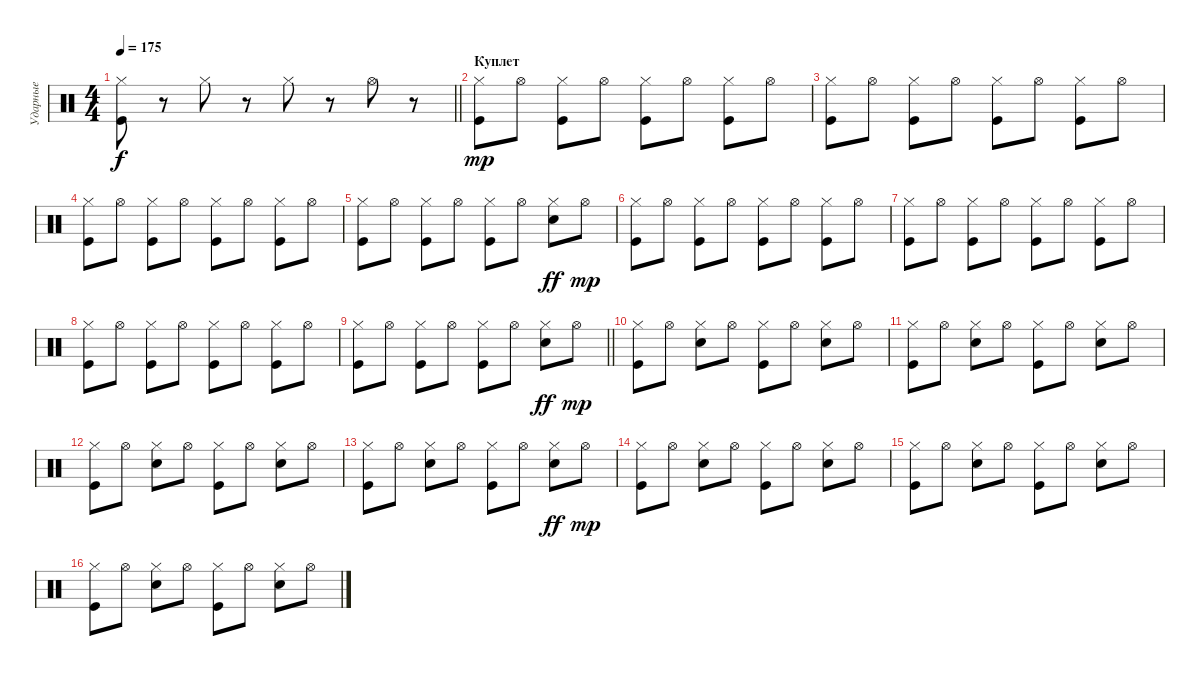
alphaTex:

\track ("Ударные" "Ударные") {instrument percussion}
\staff {score}
\articulation defaults
\ts (4 4)
\tempo 175
\clef neutral
\barLineRight lightlight
\ks c
("Hi-Hat (closed)" "Kick (hit)").8{dy f} r.8 "Hi-Hat (closed)".8 r.8 "Hi-Hat (closed)".8 r.8 "Hi-Hat (open)".8 r.8 |
\section ("" "Куплет")
("Hi-Hat (closed)" "Kick (hit)").8{dy mp} "Hi-Hat (open)".8 ("Hi-Hat (closed)" "Kick (hit)").8 "Hi-Hat (open)".8 ("Hi-Hat (closed)" "Kick (hit)").8 "Hi-Hat (open)".8 ("Hi-Hat (closed)" "Kick (hit)").8 "Hi-Hat (open)".8 |
("Hi-Hat (closed)" "Kick (hit)").8 "Hi-Hat (open)".8 ("Hi-Hat (closed)" "Kick (hit)").8 "Hi-Hat (open)".8 ("Hi-Hat (closed)" "Kick (hit)").8 "Hi-Hat (open)".8 ("Hi-Hat (closed)" "Kick (hit)").8 "Hi-Hat (open)".8 |
("Hi-Hat (closed)" "Kick (hit)").8 "Hi-Hat (open)".8 ("Hi-Hat (closed)" "Kick (hit)").8 "Hi-Hat (open)".8 ("Hi-Hat (closed)" "Kick (hit)").8 "Hi-Hat (open)".8 ("Hi-Hat (closed)" "Kick (hit)").8 "Hi-Hat (open)".8 |
("Hi-Hat (closed)" "Kick (hit)").8 "Hi-Hat (open)".8 ("Hi-Hat (closed)" "Kick (hit)").8 "Hi-Hat (open)".8 ("Hi-Hat (closed)" "Kick (hit)").8 "Hi-Hat (open)".8 ("Hi-Hat (closed)" "Electric Snare (hit)").8{dy ff} "Hi-Hat (open)".8{dy mp} |
("Hi-Hat (closed)" "Kick (hit)").8 "Hi-Hat (open)".8 ("Hi-Hat (closed)" "Kick (hit)").8 "Hi-Hat (open)".8 ("Hi-Hat (closed)" "Kick (hit)").8 "Hi-Hat (open)".8 ("Hi-Hat (closed)" "Kick (hit)").8 "Hi-Hat (open)".8 |
("Hi-Hat (closed)" "Kick (hit)").8 "Hi-Hat (open)".8 ("Hi-Hat (closed)" "Kick (hit)").8 "Hi-Hat (open)".8 ("Hi-Hat (closed)" "Kick (hit)").8 "Hi-Hat (open)".8 ("Hi-Hat (closed)" "Kick (hit)").8 "Hi-Hat (open)".8 |
("Hi-Hat (closed)" "Kick (hit)").8 "Hi-Hat (open)".8 ("Hi-Hat (closed)" "Kick (hit)").8 "Hi-Hat (open)".8 ("Hi-Hat (closed)" "Kick (hit)").8 "Hi-Hat (open)".8 ("Hi-Hat (closed)" "Kick (hit)").8 "Hi-Hat (open)".8 |
\barLineRight lightlight
("Hi-Hat (closed)" "Kick (hit)").8 "Hi-Hat (open)".8 ("Hi-Hat (closed)" "Kick (hit)").8 "Hi-Hat (open)".8 ("Hi-Hat (closed)" "Kick (hit)").8 "Hi-Hat (open)".8 ("Hi-Hat (closed)" "Electric Snare (hit)").8{dy ff} "Hi-Hat (open)".8{dy mp} |
\section ("" " ")
("Hi-Hat (closed)" "Kick (hit)").8 "Hi-Hat (open)".8 ("Hi-Hat (closed)" "Electric Snare (hit)").8 "Hi-Hat (open)".8 ("Hi-Hat (closed)" "Kick (hit)").8 "Hi-Hat (open)".8 ("Hi-Hat (closed)" "Electric Snare (hit)").8 "Hi-Hat (open)".8 |
("Hi-Hat (closed)" "Kick (hit)").8 "Hi-Hat (open)".8 ("Hi-Hat (closed)" "Electric Snare (hit)").8 "Hi-Hat (open)".8 ("Hi-Hat (closed)" "Kick (hit)").8 "Hi-Hat (open)".8 ("Hi-Hat (closed)" "Electric Snare (hit)").8 "Hi-Hat (open)".8 |
("Hi-Hat (closed)" "Kick (hit)").8 "Hi-Hat (open)".8 ("Hi-Hat (closed)" "Electric Snare (hit)").8 "Hi-Hat (open)".8 ("Hi-Hat (closed)" "Kick (hit)").8 "Hi-Hat (open)".8 ("Hi-Hat (closed)" "Electric Snare (hit)").8 "Hi-Hat (open)".8 |
("Hi-Hat (closed)" "Kick (hit)").8 "Hi-Hat (open)".8 ("Hi-Hat (closed)" "Electric Snare (hit)").8 "Hi-Hat (open)".8 ("Hi-Hat (closed)" "Kick (hit)").8 "Hi-Hat (open)".8 ("Hi-Hat (closed)" "Electric Snare (hit)").8{dy ff} "Hi-Hat (open)".8{dy mp} |
("Hi-Hat (closed)" "Kick (hit)").8 "Hi-Hat (open)".8 ("Hi-Hat (closed)" "Electric Snare (hit)").8 "Hi-Hat (open)".8 ("Hi-Hat (closed)" "Kick (hit)").8 "Hi-Hat (open)".8 ("Hi-Hat (closed)" "Electric Snare (hit)").8 "Hi-Hat (open)".8 |
("Hi-Hat (closed)" "Kick (hit)").8 "Hi-Hat (open)".8 ("Hi-Hat (closed)" "Electric Snare (hit)").8 "Hi-Hat (open)".8 ("Hi-Hat (closed)" "Kick (hit)").8 "Hi-Hat (open)".8 ("Hi-Hat (closed)" "Electric Snare (hit)").8 "Hi-Hat (open)".8 |
("Hi-Hat (closed)" "Kick (hit)").8 "Hi-Hat (open)".8 ("Hi-Hat (closed)" "Electric Snare (hit)").8 "Hi-Hat (open)".8 ("Hi-Hat (closed)" "Kick (hit)").8 "Hi-Hat (open)".8 ("Hi-Hat (closed)" "Electric Snare (hit)").8 "Hi-Hat (open)".8
